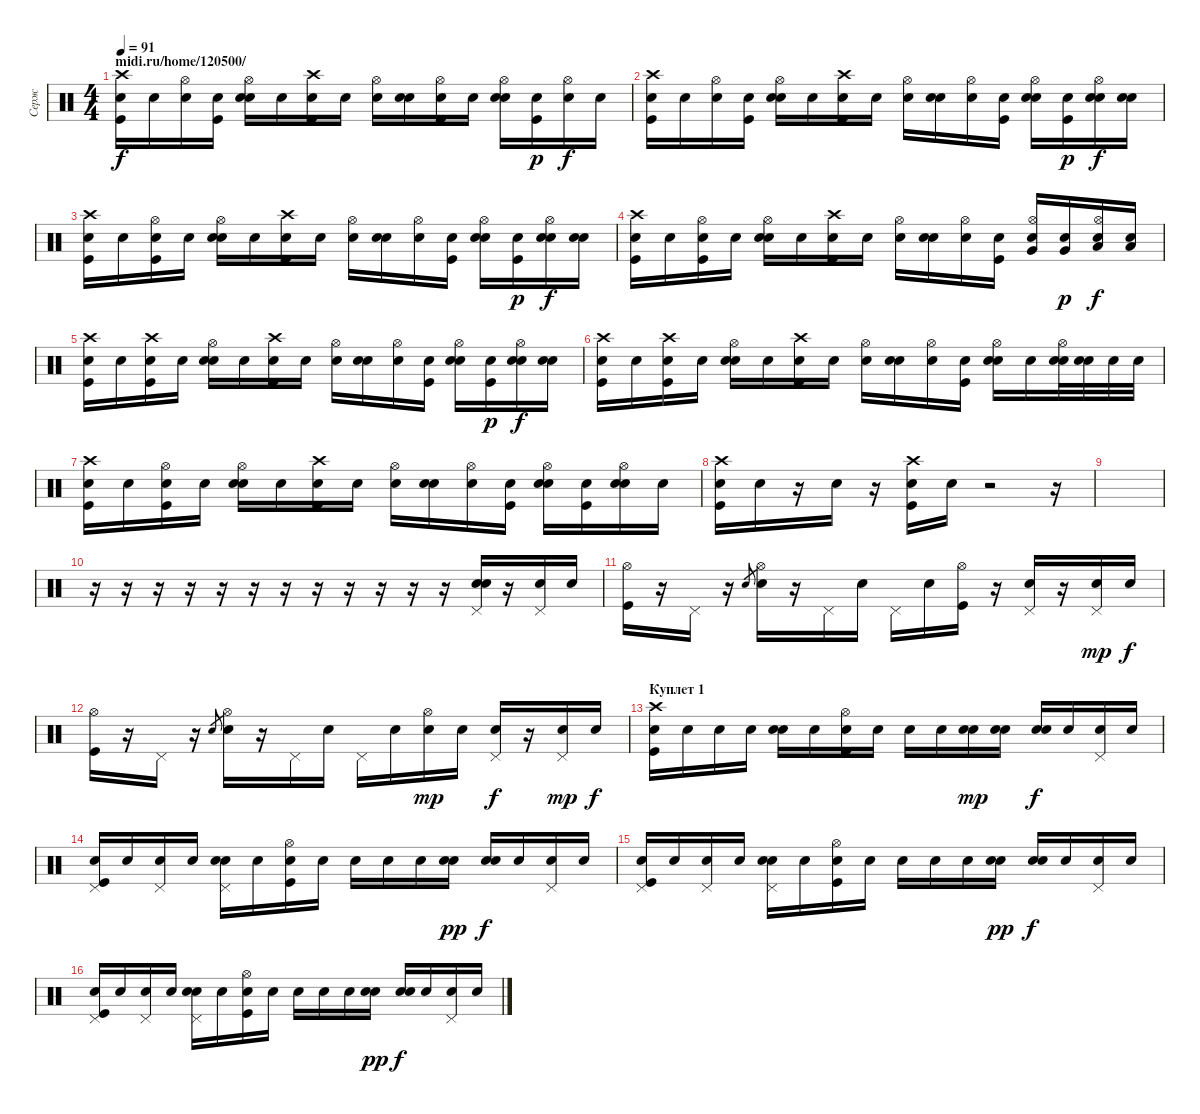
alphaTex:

\track ("Серж" "Серж") {instrument percussion}
\staff {score}
\articulation defaults
\ts (4 4)
\section ("" "midi.ru/home/120500/")
\tempo 91
\clef neutral
\ks c
("Snare (hit)"{x} "Kick (hit)" "Crash high (hit)").16{dy f} "Snare (hit)"{x}.16 ("Snare (hit)"{x} "Hi-Hat (open)").16 ("Snare (hit)"{x} "Kick (hit)").16 ("Snare (hit)"{x} "Snare (hit) 2" "Hi-Hat (open)").16 "Snare (hit)"{x}.16 ("Snare (hit)"{x} "Kick (hit)" "Crash high (hit)").16 "Snare (hit)"{x}.16 ("Snare (hit)"{x} "Hi-Hat (open)").16 ("Snare (hit)"{x} "Snare (hit) 2").16 ("Snare (hit)"{x} "Kick (hit)" "Hi-Hat (open)").16 "Snare (hit)"{x}.16 ("Snare (hit)"{x} "Snare (hit) 2" "Hi-Hat (open)").16 ("Snare (hit)"{x} "Kick (hit)").16{dy p} ("Snare (hit)"{x} "Hi-Hat (open)").16{dy f} "Snare (hit)"{x}.16 |
("Snare (hit)"{x} "Kick (hit)" "Crash high (hit)").16 "Snare (hit)"{x}.16 ("Snare (hit)"{x} "Hi-Hat (open)").16 ("Snare (hit)"{x} "Kick (hit)").16 ("Snare (hit)"{x} "Snare (hit) 2" "Hi-Hat (open)").16 "Snare (hit)"{x}.16 ("Snare (hit)"{x} "Kick (hit)" "Crash high (hit)").16 "Snare (hit)"{x}.16 ("Snare (hit)"{x} "Hi-Hat (open)").16 ("Snare (hit)"{x} "Snare (hit) 2").16 ("Snare (hit)"{x} "Hi-Hat (open)").16 ("Snare (hit)"{x} "Kick (hit)").16 ("Snare (hit)"{x} "Snare (hit) 2" "Hi-Hat (open)").16 ("Snare (hit)"{x} "Kick (hit)").16{dy p} ("Snare (hit)"{x} "Snare (hit) 2" "Hi-Hat (open)").16{dy f} ("Snare (hit)"{x} "Snare (hit) 2").16 |
("Snare (hit)"{x} "Kick (hit)" "Crash high (hit)").16 "Snare (hit)"{x}.16 ("Snare (hit)"{x} "Kick (hit)" "Hi-Hat (open)").16 "Snare (hit)"{x}.16 ("Snare (hit)"{x} "Snare (hit) 2" "Hi-Hat (open)").16 "Snare (hit)"{x}.16 ("Snare (hit)"{x} "Kick (hit)" "Crash high (hit)").16 "Snare (hit)"{x}.16 ("Snare (hit)"{x} "Hi-Hat (open)").16 ("Snare (hit)"{x} "Snare (hit) 2").16 ("Snare (hit)"{x} "Hi-Hat (open)").16 ("Snare (hit)"{x} "Kick (hit)").16 ("Snare (hit)"{x} "Snare (hit) 2" "Hi-Hat (open)").16 ("Snare (hit)"{x} "Kick (hit)").16{dy p} ("Snare (hit)"{x} "Snare (hit) 2" "Hi-Hat (open)").16{dy f} ("Snare (hit)"{x} "Snare (hit) 2").16 |
("Snare (hit)"{x} "Kick (hit)" "Crash high (hit)").16 "Snare (hit)"{x}.16 ("Snare (hit)"{x} "Kick (hit)" "Hi-Hat (open)").16 "Snare (hit)"{x}.16 ("Snare (hit)"{x} "Snare (hit) 2" "Hi-Hat (open)").16 "Snare (hit)"{x}.16 ("Snare (hit)"{x} "Kick (hit)" "Crash high (hit)").16 "Snare (hit)"{x}.16 ("Snare (hit)"{x} "Hi-Hat (open)").16 ("Snare (hit)"{x} "Snare (hit) 2").16 ("Snare (hit)"{x} "Hi-Hat (open)").16 ("Snare (hit)"{x} "Kick (hit)").16 ("Snare (hit)"{x} "Very Low Tom (hit)" "Hi-Hat (open)").16 ("Snare (hit)"{x} "Very Low Tom (hit)").16{dy p} ("Snare (hit)"{x} "Low Floor Tom (hit)" "Hi-Hat (open)").16{dy f} ("Snare (hit)"{x} "Low Floor Tom (hit)").16 |
("Snare (hit)"{x} "Kick (hit)" "Crash high (hit)").16 "Snare (hit)"{x}.16 ("Snare (hit)"{x} "Kick (hit)" "Crash high (hit)").16 "Snare (hit)"{x}.16 ("Snare (hit)"{x} "Snare (hit) 2" "Hi-Hat (open)").16 "Snare (hit)"{x}.16 ("Snare (hit)"{x} "Kick (hit)" "Crash high (hit)").16 "Snare (hit)"{x}.16 ("Snare (hit)"{x} "Hi-Hat (open)").16 ("Snare (hit)"{x} "Snare (hit) 2").16 ("Snare (hit)"{x} "Hi-Hat (open)").16 ("Snare (hit)"{x} "Kick (hit)").16 ("Snare (hit)"{x} "Snare (hit) 2" "Hi-Hat (open)").16 ("Snare (hit)"{x} "Kick (hit)").16{dy p} ("Snare (hit)"{x} "Snare (hit) 2" "Hi-Hat (open)").16{dy f} ("Snare (hit)"{x} "Snare (hit) 2").16 |
("Snare (hit)"{x} "Kick (hit)" "Crash high (hit)").16 "Snare (hit)"{x}.16 ("Snare (hit)"{x} "Kick (hit)" "Crash high (hit)").16 "Snare (hit)"{x}.16 ("Snare (hit)"{x} "Snare (hit) 2" "Hi-Hat (open)").16 "Snare (hit)"{x}.16 ("Snare (hit)"{x} "Kick (hit)" "Crash high (hit)").16 "Snare (hit)"{x}.16 ("Snare (hit)"{x} "Hi-Hat (open)").16 ("Snare (hit)"{x} "Snare (hit) 2").16 ("Snare (hit)"{x} "Hi-Hat (open)").16 ("Snare (hit)"{x} "Kick (hit)").16 ("Snare (hit)"{x} "Snare (hit) 2" "Hi-Hat (open)").16 "Snare (hit)"{x}.16 ("Snare (hit)"{x} "Electric Snare (hit)" "Hi-Hat (open)").32 ("Snare (hit)"{x} "Electric Snare (hit)").32 "Electric Snare (hit)".32 "Electric Snare (hit)".32 |
("Snare (hit)"{x} "Kick (hit)" "Crash high (hit)").16 "Snare (hit)"{x}.16 ("Snare (hit)"{x} "Kick (hit)" "Hi-Hat (open)").16 "Snare (hit)"{x}.16 ("Snare (hit)"{x} "Snare (hit) 2" "Hi-Hat (open)").16 "Snare (hit)"{x}.16 ("Snare (hit)"{x} "Kick (hit)" "Crash high (hit)").16 "Snare (hit)"{x}.16 ("Snare (hit)"{x} "Hi-Hat (open)").16 ("Snare (hit)"{x} "Snare (hit) 2").16 ("Snare (hit)"{x} "Hi-Hat (open)").16 ("Snare (hit)"{x} "Kick (hit)").16 ("Snare (hit)"{x} "Snare (hit) 2" "Hi-Hat (open)").16 ("Snare (hit)"{x} "Kick (hit)").16 ("Snare (hit)"{x} "Snare (hit) 2" "Hi-Hat (open)").16 "Snare (hit)"{x}.16 |
("Snare (hit)"{x} "Kick (hit)" "Crash high (hit)").16 "Snare (hit)"{x}.16 r.16 "Snare (hit)"{x}.16 r.16 ("Snare (hit)"{x} "Kick (hit)" "Crash high (hit)").16 "Snare (hit)"{x}.16 r.2 r.16 |
|
r.16 r.16 r.16 r.16 r.16 r.16 r.16 r.16 r.16 r.16 r.16 r.16 ("Snare (hit)"{x} "Snare (hit) 2" "Pedal Hi-Hat (hit)").16 r.16 ("Snare (hit)"{x} "Pedal Hi-Hat (hit)").16 "Snare (hit)"{x}.16 |
("Kick (hit)" "Hi-Hat (open)").16 r.16 "Pedal Hi-Hat (hit)".16 r.16 "Snare (hit) 2".8{gr} ("Snare (hit) 2" "Hi-Hat (open)").16 r.16 "Pedal Hi-Hat (hit)".16 "Snare (hit) 2".16 "Pedal Hi-Hat (hit)".16 "Snare (hit) 2".16 ("Kick (hit)" "Hi-Hat (open)").16 r.16 ("Snare (hit) 2" "Pedal Hi-Hat (hit)").16 r.16 ("Snare (hit) 2" "Pedal Hi-Hat (hit)").16{dy mp} "Snare (hit) 2".16{dy f} |
("Kick (hit)" "Hi-Hat (open)").16 r.16 "Pedal Hi-Hat (hit)".16 r.16 "Snare (hit) 2".8{gr} ("Snare (hit) 2" "Hi-Hat (open)").16 r.16 "Pedal Hi-Hat (hit)".16 "Snare (hit) 2".16 "Pedal Hi-Hat (hit)".16 "Snare (hit) 2".16 ("Snare (hit) 2" "Hi-Hat (open)").16{dy mp} "Snare (hit) 2".16 ("Snare (hit) 2" "Pedal Hi-Hat (hit)").16{dy f} r.16 ("Snare (hit) 2" "Pedal Hi-Hat (hit)").16{dy mp} "Snare (hit) 2".16{dy f} |
\section ("" "Куплет 1")
("Kick (hit)" "Crash high (hit)" "Snare (hit)"{x}).16 "Snare (hit)"{x}.16 "Snare (hit)"{x}.16 "Snare (hit)"{x}.16 ("Snare (hit) 2" "Snare (hit)"{x}).16 "Snare (hit)"{x}.16 ("Kick (hit)" "Hi-Hat (open)" "Snare (hit)"{x}).16 "Snare (hit)"{x}.16 "Snare (hit)"{x}.16 "Snare (hit)"{x}.16 ("Snare (hit) 2" "Snare (hit)"{x}).16{dy mp} ("Snare (hit) 2" "Snare (hit)"{x}).16 ("Snare (hit) 2" "Snare (hit)"{x}).16{dy f} "Snare (hit)"{x}.16 ("Pedal Hi-Hat (hit)" "Snare (hit)"{x}).16 "Snare (hit)"{x}.16 |
("Kick (hit)" "Pedal Hi-Hat (hit)" "Snare (hit)"{x}).16 "Snare (hit)"{x}.16 ("Pedal Hi-Hat (hit)" "Snare (hit)"{x}).16 "Snare (hit)"{x}.16 ("Snare (hit) 2" "Pedal Hi-Hat (hit)" "Snare (hit)"{x}).16 "Snare (hit)"{x}.16 ("Kick (hit)" "Hi-Hat (open)" "Snare (hit)"{x}).16 "Snare (hit)"{x}.16 "Snare (hit)"{x}.16 "Snare (hit)"{x}.16 "Snare (hit)"{x}.16 ("Snare (hit) 2" "Snare (hit)"{x}).16{dy pp} ("Snare (hit) 2" "Snare (hit)"{x}).16{dy f} "Snare (hit)"{x}.16 ("Pedal Hi-Hat (hit)" "Snare (hit)"{x}).16 "Snare (hit)"{x}.16 |
("Kick (hit)" "Pedal Hi-Hat (hit)" "Snare (hit)"{x}).16 "Snare (hit)"{x}.16 ("Pedal Hi-Hat (hit)" "Snare (hit)"{x}).16 "Snare (hit)"{x}.16 ("Snare (hit) 2" "Pedal Hi-Hat (hit)" "Snare (hit)"{x}).16 "Snare (hit)"{x}.16 ("Kick (hit)" "Hi-Hat (open)" "Snare (hit)"{x}).16 "Snare (hit)"{x}.16 "Snare (hit)"{x}.16 "Snare (hit)"{x}.16 "Snare (hit)"{x}.16 ("Snare (hit) 2" "Snare (hit)"{x}).16{dy pp} ("Snare (hit) 2" "Snare (hit)"{x}).16{dy f} "Snare (hit)"{x}.16 ("Pedal Hi-Hat (hit)" "Snare (hit)"{x}).16 "Snare (hit)"{x}.16 |
("Kick (hit)" "Pedal Hi-Hat (hit)" "Snare (hit)"{x}).16 "Snare (hit)"{x}.16 ("Pedal Hi-Hat (hit)" "Snare (hit)"{x}).16 "Snare (hit)"{x}.16 ("Snare (hit) 2" "Pedal Hi-Hat (hit)" "Snare (hit)"{x}).16 "Snare (hit)"{x}.16 ("Kick (hit)" "Hi-Hat (open)" "Snare (hit)"{x}).16 "Snare (hit)"{x}.16 "Snare (hit)"{x}.16 "Snare (hit)"{x}.16 "Snare (hit)"{x}.16 ("Snare (hit) 2" "Snare (hit)"{x}).16{dy pp} ("Snare (hit) 2" "Snare (hit)"{x}).16{dy f} "Snare (hit)"{x}.16 ("Pedal Hi-Hat (hit)" "Snare (hit)"{x}).16 "Snare (hit)"{x}.16
